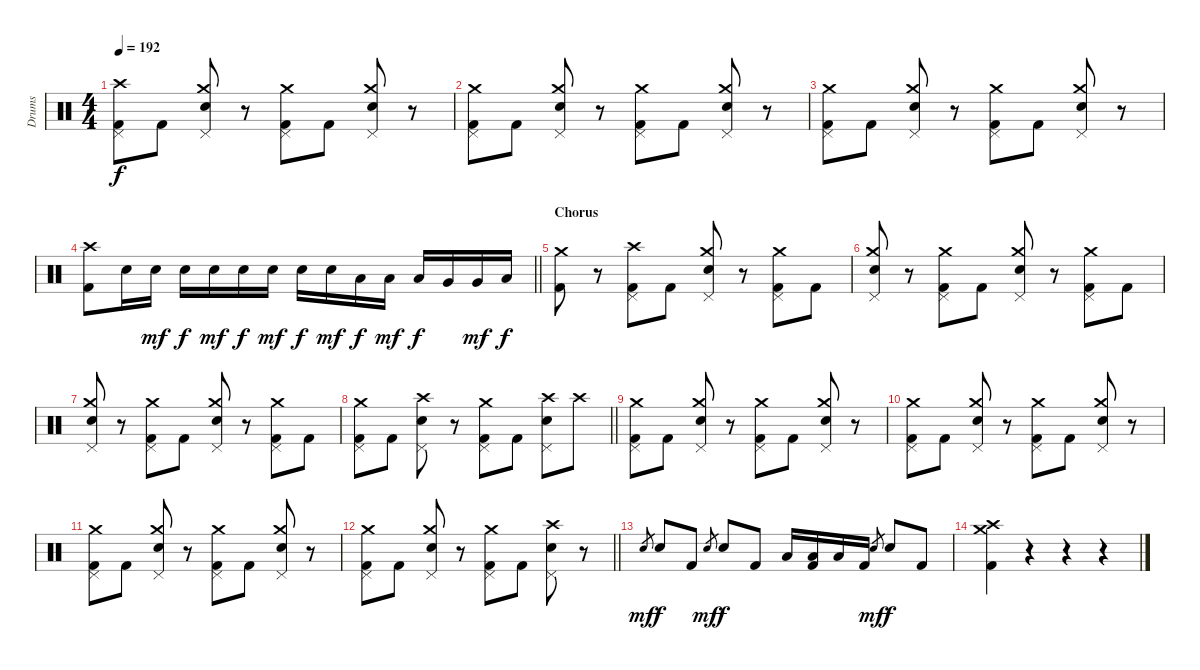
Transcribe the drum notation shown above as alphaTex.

\track ("Drums" "Drums") {instrument percussion}
\staff {score}
\articulation defaults
\ts (4 4)
\tempo 192
\clef neutral
\ks c
("Crash high (hit)" "Pedal Hi-Hat (hit)" "Kick (hit) 2").8{dy f} "Kick (hit) 2".8 ("Crash medium (hit)" "Pedal Hi-Hat (hit)" "Snare (hit) 2").8 r.8 ("Crash medium (hit)" "Pedal Hi-Hat (hit)" "Kick (hit) 2").8 "Kick (hit) 2".8 ("Crash medium (hit)" "Pedal Hi-Hat (hit)" "Snare (hit) 2").8 r.8 |
("Crash medium (hit)" "Pedal Hi-Hat (hit)" "Kick (hit) 2").8 "Kick (hit) 2".8 ("Crash medium (hit)" "Pedal Hi-Hat (hit)" "Snare (hit) 2").8 r.8 ("Crash medium (hit)" "Pedal Hi-Hat (hit)" "Kick (hit) 2").8 "Kick (hit) 2".8 ("Crash medium (hit)" "Pedal Hi-Hat (hit)" "Snare (hit) 2").8 r.8 |
("Crash medium (hit)" "Pedal Hi-Hat (hit)" "Kick (hit) 2").8 "Kick (hit) 2".8 ("Crash medium (hit)" "Pedal Hi-Hat (hit)" "Snare (hit) 2").8 r.8 ("Crash medium (hit)" "Pedal Hi-Hat (hit)" "Kick (hit) 2").8 "Kick (hit) 2".8 ("Crash medium (hit)" "Pedal Hi-Hat (hit)" "Snare (hit) 2").8 r.8 |
\barLineRight lightlight
("Crash high (hit)" "Kick (hit) 2").8 "Snare (hit) 2".16 "Snare (hit) 2".16{dy mf} "Snare (hit) 2".16{dy f} "Snare (hit) 2".16{dy mf} "Snare (hit) 2".16{dy f} "Snare (hit) 2".16{dy mf} "Snare (hit) 2".16{dy f} "Snare (hit) 2".16{dy mf} "Low Tom (hit)".16{dy f} "Low Tom (hit)".16{dy mf} "Low Tom (hit)".16{dy f} "Very Low Tom (hit)".16 "Very Low Tom (hit)".16{dy mf} "Low Floor Tom (hit)".16{dy f} |
\section ("" "Chorus")
("Crash medium (hit)" "Kick (hit) 2").8 r.8 ("Crash high (hit)" "Pedal Hi-Hat (hit)" "Kick (hit) 2").8 "Kick (hit) 2".8 ("Crash medium (hit)" "Pedal Hi-Hat (hit)" "Snare (hit) 2").8 r.8 ("Crash medium (hit)" "Pedal Hi-Hat (hit)" "Kick (hit) 2").8 "Kick (hit) 2".8 |
("Crash medium (hit)" "Pedal Hi-Hat (hit)" "Snare (hit) 2").8 r.8 ("Crash medium (hit)" "Pedal Hi-Hat (hit)" "Kick (hit) 2").8 "Kick (hit) 2".8 ("Crash medium (hit)" "Pedal Hi-Hat (hit)" "Snare (hit) 2").8 r.8 ("Crash medium (hit)" "Pedal Hi-Hat (hit)" "Kick (hit) 2").8 "Kick (hit) 2".8 |
("Crash medium (hit)" "Pedal Hi-Hat (hit)" "Snare (hit) 2").8 r.8 ("Crash medium (hit)" "Pedal Hi-Hat (hit)" "Kick (hit) 2").8 "Kick (hit) 2".8 ("Crash medium (hit)" "Pedal Hi-Hat (hit)" "Snare (hit) 2").8 r.8 ("Crash medium (hit)" "Pedal Hi-Hat (hit)" "Kick (hit) 2").8 "Kick (hit) 2".8 |
\barLineRight lightlight
("Crash medium (hit)" "Pedal Hi-Hat (hit)" "Kick (hit) 2").8 "Kick (hit) 2".8 ("Crash high (hit)" "Pedal Hi-Hat (hit)" "Snare (hit) 2").8 r.8 ("Crash medium (hit)" "Pedal Hi-Hat (hit)" "Kick (hit) 2").8 "Kick (hit) 2".8 ("Crash high (hit)" "Pedal Hi-Hat (hit)" "Snare (hit) 2").8 "Crash high (hit)".8 |
("Crash medium (hit)" "Pedal Hi-Hat (hit)" "Kick (hit) 2").8 "Kick (hit) 2".8 ("Crash medium (hit)" "Pedal Hi-Hat (hit)" "Snare (hit) 2").8 r.8 ("Crash medium (hit)" "Pedal Hi-Hat (hit)" "Kick (hit) 2").8 "Kick (hit) 2".8 ("Crash medium (hit)" "Pedal Hi-Hat (hit)" "Snare (hit) 2").8 r.8 |
("Crash medium (hit)" "Pedal Hi-Hat (hit)" "Kick (hit) 2").8 "Kick (hit) 2".8 ("Crash medium (hit)" "Pedal Hi-Hat (hit)" "Snare (hit) 2").8 r.8 ("Crash medium (hit)" "Pedal Hi-Hat (hit)" "Kick (hit) 2").8 "Kick (hit) 2".8 ("Crash medium (hit)" "Pedal Hi-Hat (hit)" "Snare (hit) 2").8 r.8 |
("Crash medium (hit)" "Pedal Hi-Hat (hit)" "Kick (hit) 2").8 "Kick (hit) 2".8 ("Crash medium (hit)" "Pedal Hi-Hat (hit)" "Snare (hit) 2").8 r.8 ("Crash medium (hit)" "Pedal Hi-Hat (hit)" "Kick (hit) 2").8 "Kick (hit) 2".8 ("Crash medium (hit)" "Pedal Hi-Hat (hit)" "Snare (hit) 2").8 r.8 |
\barLineRight lightlight
("Crash medium (hit)" "Pedal Hi-Hat (hit)" "Kick (hit) 2").8 "Kick (hit) 2".8 ("Crash medium (hit)" "Pedal Hi-Hat (hit)" "Snare (hit) 2").8 r.8 ("Crash medium (hit)" "Pedal Hi-Hat (hit)" "Kick (hit) 2").8 "Kick (hit) 2".8 ("Crash high (hit)" "Pedal Hi-Hat (hit)" "Snare (hit) 2").8 r.8 |
"Snare (hit) 2".8{gr dy mf} "Snare (hit) 2".8{dy f} "Kick (hit) 2".8 "Snare (hit) 2".8{gr dy mf} "Snare (hit) 2".8{dy f} "Kick (hit) 2".8 "Low Floor Tom (hit)".16 ("Low Tom (hit)" "Kick (hit) 2").16 "Low Floor Tom (hit)".16 "Kick (hit) 2".16 "Snare (hit) 2".8{gr dy mf} "Snare (hit) 2".8{dy f} "Kick (hit) 2".8 |
("Crash medium (hit)" "Crash high (hit)" "Kick (hit) 2").4 r.4 r.4 r.4
